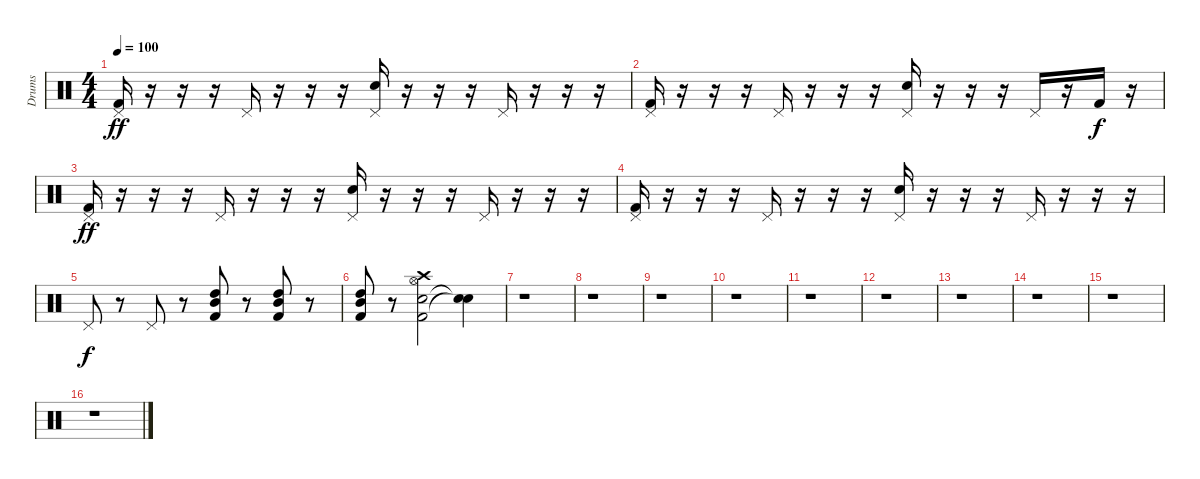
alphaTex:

\track ("Drums" "Drums") {instrument percussion}
\staff {score}
\articulation defaults
\ts (4 4)
\tempo 100
\clef neutral
\ks c
("Kick (hit) 2" "Pedal Hi-Hat (hit)").16{dy ff} r.16 r.16 r.16 "Pedal Hi-Hat (hit)".16 r.16 r.16 r.16 ("Electric Snare (hit)" "Pedal Hi-Hat (hit)").16 r.16 r.16 r.16 "Pedal Hi-Hat (hit)".16 r.16 r.16 r.16 |
("Kick (hit) 2" "Pedal Hi-Hat (hit)").16 r.16 r.16 r.16 "Pedal Hi-Hat (hit)".16 r.16 r.16 r.16 ("Electric Snare (hit)" "Pedal Hi-Hat (hit)").16 r.16 r.16 r.16 "Pedal Hi-Hat (hit)".16 r.16 "Kick (hit) 2".16{dy f} r.16 |
("Kick (hit) 2" "Pedal Hi-Hat (hit)").16{dy ff} r.16 r.16 r.16 "Pedal Hi-Hat (hit)".16 r.16 r.16 r.16 ("Electric Snare (hit)" "Pedal Hi-Hat (hit)").16 r.16 r.16 r.16 "Pedal Hi-Hat (hit)".16 r.16 r.16 r.16 |
("Kick (hit) 2" "Pedal Hi-Hat (hit)").16 r.16 r.16 r.16 "Pedal Hi-Hat (hit)".16 r.16 r.16 r.16 ("Electric Snare (hit)" "Pedal Hi-Hat (hit)").16 r.16 r.16 r.16 "Pedal Hi-Hat (hit)".16 r.16 r.16 r.16 |
"Pedal Hi-Hat (hit)".8{dy f} r.8 "Pedal Hi-Hat (hit)".8 r.8 ("Kick (hit) 2" "High Tom (hit)" "Mid Tom (hit)").8 r.8 ("Kick (hit) 2" "High Tom (hit)" "Mid Tom (hit)").8 r.8 |
("Kick (hit) 2" "High Tom (hit)" "Mid Tom (hit)").8 r.8 ("Kick (hit) 2" "Electric Snare (hit)" "Hi-Hat (open)" "Crash high (hit)").2 ("Snare (hit)"{t} "Snare (hit)"{t}).4 |
r.1 |
r.1 |
r.1 |
r.1 |
r.1 |
r.1 |
r.1 |
r.1 |
r.1 |
r.1
